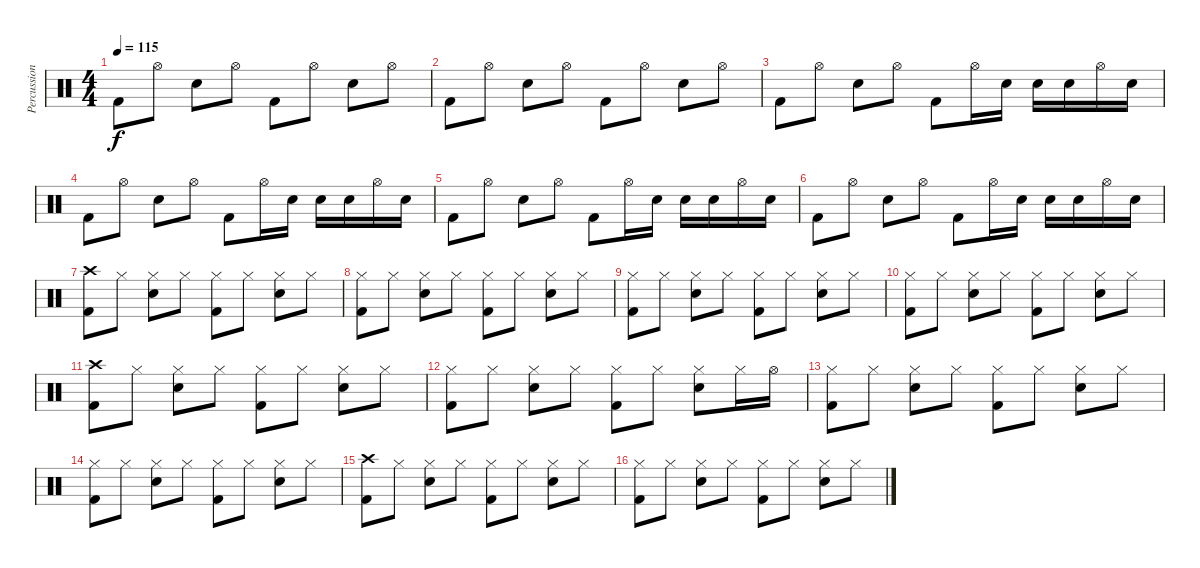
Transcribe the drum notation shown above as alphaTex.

\track ("Percussion" "Percussion") {instrument percussion}
\staff {score}
\articulation defaults
\ts (4 4)
\tempo 115
\clef neutral
\ks c "Kick (hit) 2".8{dy f} "Hi-Hat (open)".8 "Snare (hit) 2".8 "Hi-Hat (open)".8 "Kick (hit) 2".8 "Hi-Hat (open)".8 "Snare (hit) 2".8 "Hi-Hat (open)".8
|
"Kick (hit) 2".8 "Hi-Hat (open)".8 "Snare (hit) 2".8 "Hi-Hat (open)".8 "Kick (hit) 2".8 "Hi-Hat (open)".8 "Snare (hit) 2".8 "Hi-Hat (open)".8 |
"Kick (hit) 2".8 "Hi-Hat (open)".8 "Snare (hit) 2".8 "Hi-Hat (open)".8 "Kick (hit) 2".8 "Hi-Hat (open)".16 "Snare (hit) 2".16 "Snare (hit) 2".16 "Snare (hit) 2".16 "Hi-Hat (open)".16 "Snare (hit) 2".16 |
"Kick (hit) 2".8 "Hi-Hat (open)".8 "Snare (hit) 2".8 "Hi-Hat (open)".8 "Kick (hit) 2".8 "Hi-Hat (open)".16 "Snare (hit) 2".16 "Snare (hit) 2".16 "Snare (hit) 2".16 "Hi-Hat (open)".16 "Snare (hit) 2".16 |
"Kick (hit) 2".8 "Hi-Hat (open)".8 "Snare (hit) 2".8 "Hi-Hat (open)".8 "Kick (hit) 2".8 "Hi-Hat (open)".16 "Snare (hit) 2".16 "Snare (hit) 2".16 "Snare (hit) 2".16 "Hi-Hat (open)".16 "Snare (hit) 2".16 |
"Kick (hit) 2".8 "Hi-Hat (open)".8 "Snare (hit) 2".8 "Hi-Hat (open)".8 "Kick (hit) 2".8 "Hi-Hat (open)".16 "Snare (hit) 2".16 "Snare (hit) 2".16 "Snare (hit) 2".16 "Hi-Hat (open)".16 "Snare (hit) 2".16 |
("Crash high (hit)" "Kick (hit) 2").8 "Hi-Hat (closed)".8 ("Hi-Hat (closed)" "Snare (hit) 2").8 "Hi-Hat (closed)".8 ("Hi-Hat (closed)" "Kick (hit) 2").8 "Hi-Hat (closed)".8 ("Hi-Hat (closed)" "Snare (hit) 2").8 "Hi-Hat (closed)".8 |
("Hi-Hat (closed)" "Kick (hit) 2").8 "Hi-Hat (closed)".8 ("Hi-Hat (closed)" "Snare (hit) 2").8 "Hi-Hat (closed)".8 ("Hi-Hat (closed)" "Kick (hit) 2").8 "Hi-Hat (closed)".8 ("Hi-Hat (closed)" "Snare (hit) 2").8 "Hi-Hat (closed)".8 |
("Hi-Hat (closed)" "Kick (hit) 2").8 "Hi-Hat (closed)".8 ("Hi-Hat (closed)" "Snare (hit) 2").8 "Hi-Hat (closed)".8 ("Hi-Hat (closed)" "Kick (hit) 2").8 "Hi-Hat (closed)".8 ("Hi-Hat (closed)" "Snare (hit) 2").8 "Hi-Hat (closed)".8 |
("Hi-Hat (closed)" "Kick (hit) 2").8 "Hi-Hat (closed)".8 ("Hi-Hat (closed)" "Snare (hit) 2").8 "Hi-Hat (closed)".8 ("Hi-Hat (closed)" "Kick (hit) 2").8 "Hi-Hat (closed)".8 ("Hi-Hat (closed)" "Snare (hit) 2").8 "Hi-Hat (closed)".8 |
("Crash high (hit)" "Kick (hit) 2").8 "Hi-Hat (closed)".8 ("Hi-Hat (closed)" "Snare (hit) 2").8 "Hi-Hat (closed)".8 ("Hi-Hat (closed)" "Kick (hit) 2").8 "Hi-Hat (closed)".8 ("Hi-Hat (closed)" "Snare (hit) 2").8 "Hi-Hat (closed)".8 |
("Hi-Hat (closed)" "Kick (hit) 2").8 "Hi-Hat (closed)".8 ("Hi-Hat (closed)" "Snare (hit) 2").8 "Hi-Hat (closed)".8 ("Hi-Hat (closed)" "Kick (hit) 2").8 "Hi-Hat (closed)".8 ("Hi-Hat (closed)" "Snare (hit) 2").8 "Hi-Hat (closed)".16 "Hi-Hat (open)".16 |
("Hi-Hat (closed)" "Kick (hit) 2").8 "Hi-Hat (closed)".8 ("Hi-Hat (closed)" "Snare (hit) 2").8 "Hi-Hat (closed)".8 ("Hi-Hat (closed)" "Kick (hit) 2").8 "Hi-Hat (closed)".8 ("Hi-Hat (closed)" "Snare (hit) 2").8 "Hi-Hat (closed)".8 |
("Hi-Hat (closed)" "Kick (hit) 2").8 "Hi-Hat (closed)".8 ("Hi-Hat (closed)" "Snare (hit) 2").8 "Hi-Hat (closed)".8 ("Hi-Hat (closed)" "Kick (hit) 2").8 "Hi-Hat (closed)".8 ("Hi-Hat (closed)" "Snare (hit) 2").8 "Hi-Hat (closed)".8 |
("Crash high (hit)" "Kick (hit) 2").8 "Hi-Hat (closed)".8 ("Hi-Hat (closed)" "Snare (hit) 2").8 "Hi-Hat (closed)".8 ("Hi-Hat (closed)" "Kick (hit) 2").8 "Hi-Hat (closed)".8 ("Hi-Hat (closed)" "Snare (hit) 2").8 "Hi-Hat (closed)".8 |
("Hi-Hat (closed)" "Kick (hit) 2").8 "Hi-Hat (closed)".8 ("Hi-Hat (closed)" "Snare (hit) 2").8 "Hi-Hat (closed)".8 ("Hi-Hat (closed)" "Kick (hit) 2").8 "Hi-Hat (closed)".8 ("Hi-Hat (closed)" "Snare (hit) 2").8 "Hi-Hat (closed)".8
